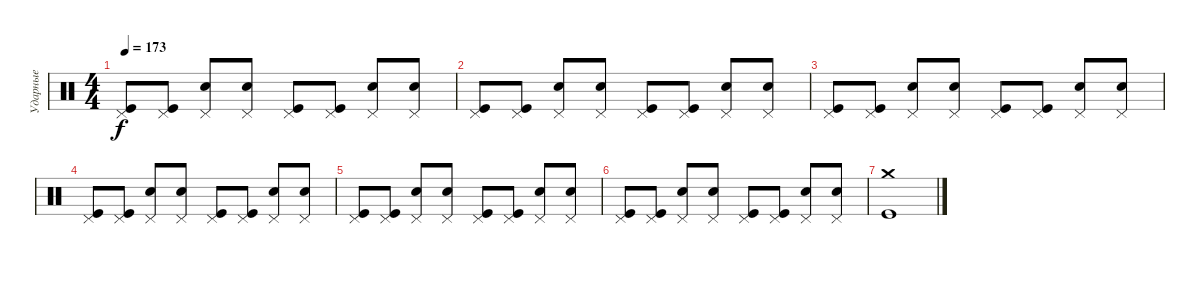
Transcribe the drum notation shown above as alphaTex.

\track ("Ударные" "Ударные") {instrument percussion}
\staff {score}
\articulation defaults
\ts (4 4)
\tempo 173
\clef neutral
\ks c
("Pedal Hi-Hat (hit)" "Kick (hit)").8{dy f} ("Pedal Hi-Hat (hit)" "Kick (hit)").8 ("Pedal Hi-Hat (hit)" "Electric Snare (hit)").8 ("Pedal Hi-Hat (hit)" "Electric Snare (hit)").8 ("Pedal Hi-Hat (hit)" "Kick (hit)").8 ("Pedal Hi-Hat (hit)" "Kick (hit)").8 ("Pedal Hi-Hat (hit)" "Electric Snare (hit)").8 ("Pedal Hi-Hat (hit)" "Electric Snare (hit)").8 |
("Pedal Hi-Hat (hit)" "Kick (hit)").8 ("Pedal Hi-Hat (hit)" "Kick (hit)").8 ("Pedal Hi-Hat (hit)" "Electric Snare (hit)").8 ("Pedal Hi-Hat (hit)" "Electric Snare (hit)").8 ("Pedal Hi-Hat (hit)" "Kick (hit)").8 ("Pedal Hi-Hat (hit)" "Kick (hit)").8 ("Pedal Hi-Hat (hit)" "Electric Snare (hit)").8 ("Pedal Hi-Hat (hit)" "Electric Snare (hit)").8 |
("Pedal Hi-Hat (hit)" "Kick (hit)").8 ("Pedal Hi-Hat (hit)" "Kick (hit)").8 ("Pedal Hi-Hat (hit)" "Electric Snare (hit)").8 ("Pedal Hi-Hat (hit)" "Electric Snare (hit)").8 ("Pedal Hi-Hat (hit)" "Kick (hit)").8 ("Pedal Hi-Hat (hit)" "Kick (hit)").8 ("Pedal Hi-Hat (hit)" "Electric Snare (hit)").8 ("Pedal Hi-Hat (hit)" "Electric Snare (hit)").8 |
("Pedal Hi-Hat (hit)" "Kick (hit)").8 ("Pedal Hi-Hat (hit)" "Kick (hit)").8 ("Pedal Hi-Hat (hit)" "Electric Snare (hit)").8 ("Pedal Hi-Hat (hit)" "Electric Snare (hit)").8 ("Pedal Hi-Hat (hit)" "Kick (hit)").8 ("Pedal Hi-Hat (hit)" "Kick (hit)").8 ("Pedal Hi-Hat (hit)" "Electric Snare (hit)").8 ("Pedal Hi-Hat (hit)" "Electric Snare (hit)").8 |
("Pedal Hi-Hat (hit)" "Kick (hit)").8 ("Pedal Hi-Hat (hit)" "Kick (hit)").8 ("Pedal Hi-Hat (hit)" "Electric Snare (hit)").8 ("Pedal Hi-Hat (hit)" "Electric Snare (hit)").8 ("Pedal Hi-Hat (hit)" "Kick (hit)").8 ("Pedal Hi-Hat (hit)" "Kick (hit)").8 ("Pedal Hi-Hat (hit)" "Electric Snare (hit)").8 ("Pedal Hi-Hat (hit)" "Electric Snare (hit)").8 |
("Pedal Hi-Hat (hit)" "Kick (hit)").8 ("Pedal Hi-Hat (hit)" "Kick (hit)").8 ("Pedal Hi-Hat (hit)" "Electric Snare (hit)").8 ("Pedal Hi-Hat (hit)" "Electric Snare (hit)").8 ("Pedal Hi-Hat (hit)" "Kick (hit)").8 ("Pedal Hi-Hat (hit)" "Kick (hit)").8 ("Pedal Hi-Hat (hit)" "Electric Snare (hit)").8 ("Pedal Hi-Hat (hit)" "Electric Snare (hit)").8 |
("Crash medium (hit)" "Kick (hit)").1
